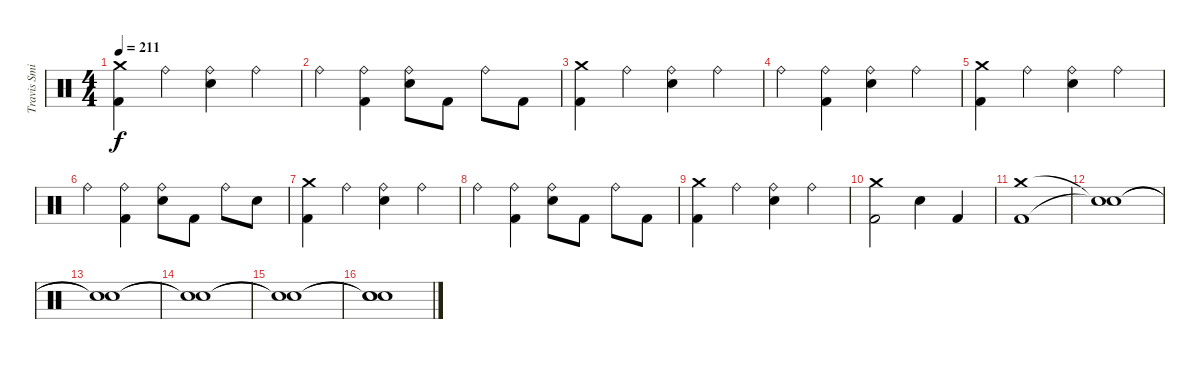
\track ("Travis Smith" "Travis Smi") {instrument percussion}
\staff {score}
\articulation defaults
\ts (4 4)
\tempo 211
\clef neutral
\ks c
("Crash medium (hit)" "Kick (hit) 2").4{dy f} "Ride (bell)".4 ("Ride (bell)" "Electric Snare (hit)").4 "Ride (bell)".4 |
"Ride (bell)".4 ("Ride (bell)" "Kick (hit) 2").4 ("Ride (bell)" "Electric Snare (hit)").8 "Kick (hit) 2".8 "Ride (bell)".8 "Kick (hit) 2".8 |
("Crash medium (hit)" "Kick (hit) 2").4 "Ride (bell)".4 ("Ride (bell)" "Electric Snare (hit)").4 "Ride (bell)".4 |
"Ride (bell)".4 ("Ride (bell)" "Kick (hit) 2").4 ("Ride (bell)" "Electric Snare (hit)").4 "Ride (bell)".4 |
("Crash medium (hit)" "Kick (hit) 2").4 "Ride (bell)".4 ("Ride (bell)" "Electric Snare (hit)").4 "Ride (bell)".4 |
"Ride (bell)".4 ("Ride (bell)" "Kick (hit) 2").4 ("Ride (bell)" "Electric Snare (hit)").8 "Kick (hit) 2".8 "Ride (bell)".8 "Electric Snare (hit)".8 |
("Crash medium (hit)" "Kick (hit) 2").4 "Ride (bell)".4 ("Ride (bell)" "Electric Snare (hit)").4 "Ride (bell)".4 |
"Ride (bell)".4 ("Ride (bell)" "Kick (hit) 2").4 ("Ride (bell)" "Electric Snare (hit)").8 "Kick (hit) 2".8 "Ride (bell)".8 "Kick (hit) 2".8 |
("Crash medium (hit)" "Kick (hit) 2").4 "Ride (bell)".4 ("Ride (bell)" "Electric Snare (hit)").4 "Ride (bell)".4 |
("Crash medium (hit)" "Kick (hit) 2").2 "Electric Snare (hit)".4 "Kick (hit) 2".4 |
("Crash medium (hit)" "Kick (hit) 2").1 |
("Snare (hit)"{t} "Snare (hit)"{t}).1 |
("Snare (hit)"{t} "Snare (hit)"{t}).1 |
("Snare (hit)"{t} "Snare (hit)"{t}).1 |
("Snare (hit)"{t} "Snare (hit)"{t}).1 |
("Snare (hit)"{t} "Snare (hit)"{t} "Snare (hit)").1
